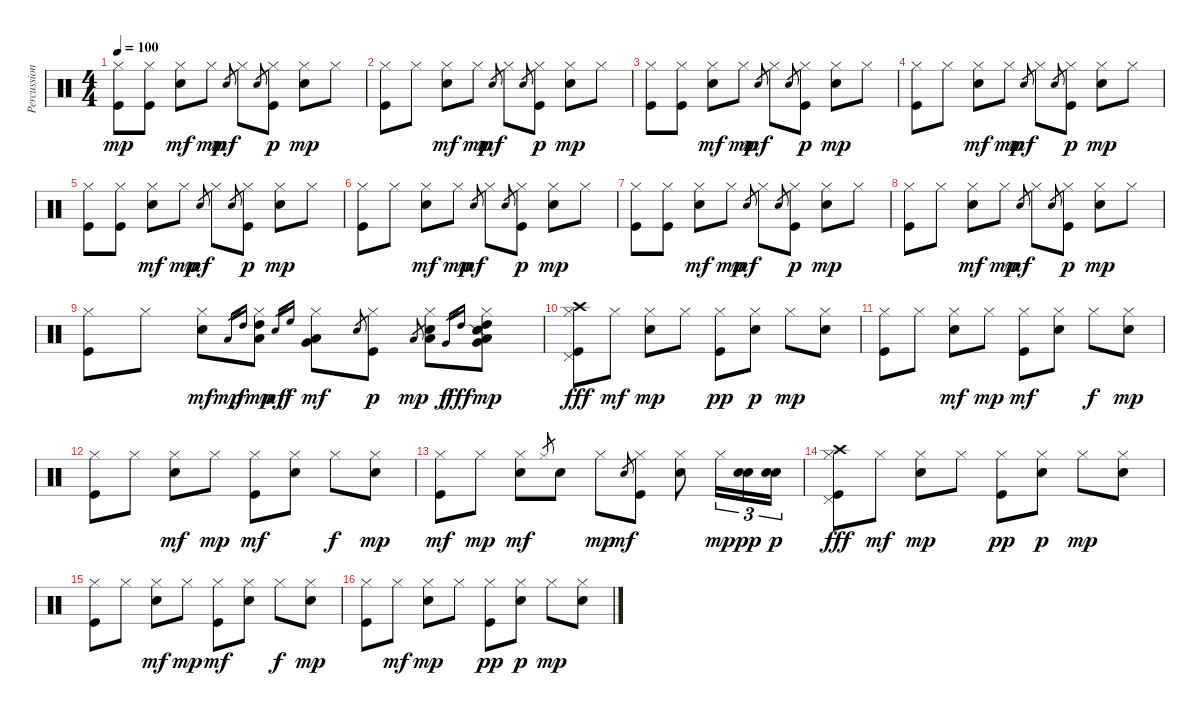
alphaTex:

\track ("Percussions" "Percussion") {instrument percussion}
\staff {score}
\articulation defaults
\ts (4 4)
\tempo 100
\clef neutral
\ks c
("Kick (hit)" "Hi-Hat (closed)").8{dy mp} ("Kick (hit)" "Hi-Hat (closed)").8 ("Snare (hit) 2" "Hi-Hat (closed)").8{dy mf} "Hi-Hat (closed)".8{dy mp} "Snare (hit) 2".8{gr dy mf} "Hi-Hat (closed)".8 "Snare (hit) 2".8{gr} ("Kick (hit)" "Hi-Hat (closed)").8{dy p} ("Snare (hit) 2" "Hi-Hat (closed)").8{dy mp} "Hi-Hat (closed)".8 |
("Kick (hit)" "Hi-Hat (closed)").8 "Hi-Hat (closed)".8 ("Snare (hit) 2" "Hi-Hat (closed)").8{dy mf} "Hi-Hat (closed)".8{dy mp} "Snare (hit) 2".8{gr dy mf} "Hi-Hat (closed)".8 "Snare (hit) 2".8{gr} ("Kick (hit)" "Hi-Hat (closed)").8{dy p} ("Snare (hit) 2" "Hi-Hat (closed)").8{dy mp} "Hi-Hat (closed)".8 |
("Kick (hit)" "Hi-Hat (closed)").8 ("Kick (hit)" "Hi-Hat (closed)").8 ("Snare (hit) 2" "Hi-Hat (closed)").8{dy mf} "Hi-Hat (closed)".8{dy mp} "Snare (hit) 2".8{gr dy mf} "Hi-Hat (closed)".8 "Snare (hit) 2".8{gr} ("Kick (hit)" "Hi-Hat (closed)").8{dy p} ("Snare (hit) 2" "Hi-Hat (closed)").8{dy mp} "Hi-Hat (closed)".8 |
("Kick (hit)" "Hi-Hat (closed)").8 "Hi-Hat (closed)".8 ("Snare (hit) 2" "Hi-Hat (closed)").8{dy mf} "Hi-Hat (closed)".8{dy mp} "Snare (hit) 2".8{gr dy mf} "Hi-Hat (closed)".8 "Snare (hit) 2".8{gr} ("Kick (hit)" "Hi-Hat (closed)").8{dy p} ("Snare (hit) 2" "Hi-Hat (closed)").8{dy mp} "Hi-Hat (closed)".8 |
("Kick (hit)" "Hi-Hat (closed)").8 ("Kick (hit)" "Hi-Hat (closed)").8 ("Snare (hit) 2" "Hi-Hat (closed)").8{dy mf} "Hi-Hat (closed)".8{dy mp} "Snare (hit) 2".8{gr dy mf} "Hi-Hat (closed)".8 "Snare (hit) 2".8{gr} ("Kick (hit)" "Hi-Hat (closed)").8{dy p} ("Snare (hit) 2" "Hi-Hat (closed)").8{dy mp} "Hi-Hat (closed)".8 |
("Kick (hit)" "Hi-Hat (closed)").8 "Hi-Hat (closed)".8 ("Snare (hit) 2" "Hi-Hat (closed)").8{dy mf} "Hi-Hat (closed)".8{dy mp} "Snare (hit) 2".8{gr dy mf} "Hi-Hat (closed)".8 "Snare (hit) 2".8{gr} ("Kick (hit)" "Hi-Hat (closed)").8{dy p} ("Snare (hit) 2" "Hi-Hat (closed)").8{dy mp} "Hi-Hat (closed)".8 |
("Kick (hit)" "Hi-Hat (closed)").8 ("Kick (hit)" "Hi-Hat (closed)").8 ("Snare (hit) 2" "Hi-Hat (closed)").8{dy mf} "Hi-Hat (closed)".8{dy mp} "Snare (hit) 2".8{gr dy mf} "Hi-Hat (closed)".8 "Snare (hit) 2".8{gr} ("Kick (hit)" "Hi-Hat (closed)").8{dy p} ("Snare (hit) 2" "Hi-Hat (closed)").8{dy mp} "Hi-Hat (closed)".8 |
("Kick (hit)" "Hi-Hat (closed)").8 "Hi-Hat (closed)".8 ("Snare (hit) 2" "Hi-Hat (closed)").8{dy mf} "Hi-Hat (closed)".8{dy mp} "Snare (hit) 2".8{gr dy mf} "Hi-Hat (closed)".8 "Snare (hit) 2".8{gr} ("Kick (hit)" "Hi-Hat (closed)").8{dy p} ("Snare (hit) 2" "Hi-Hat (closed)").8{dy mp} "Hi-Hat (closed)".8 |
("Kick (hit)" "Hi-Hat (closed)").8 "Hi-Hat (closed)".8 ("Snare (hit) 2" "Hi-Hat (closed)").8{dy mf} "Low Tom (hit)".16{gr dy mp} "High Tom (hit)".16{gr dy f} ("Hi-Hat (closed)" "Low Tom (hit)" "High Tom (hit)").8{dy mp} "Snare (hit) 2".16{gr dy mf} "High Floor Tom (hit)".16{gr dy f} ("Hi-Hat (closed)" "Very Low Tom (hit)" "Low Tom (hit)").8{dy mf} "Snare (hit) 2".8{gr} ("Kick (hit)" "Hi-Hat (closed)").8{dy p} "Low Tom (hit)".8{gr dy mp} ("Snare (hit) 2" "Hi-Hat (closed)" "Low Tom (hit)").8 "Very Low Tom (hit)".16{gr dy f} "High Tom (hit)".16{gr dy fff} ("Snare (side stick) 2" "Very Low Tom (hit)" "Low Floor Tom (hit)" "Hi-Hat (closed)" "High Tom (hit)").8{dy mp} |
("Kick (hit)" "Hi-Hat (closed)" "Pedal Hi-Hat (hit)" "Crash high (hit)").8{dy fff} "Hi-Hat (closed)".8{dy mf} ("Snare (hit) 2" "Hi-Hat (closed)").8{dy mp} "Hi-Hat (closed)".8 ("Kick (hit)" "Hi-Hat (closed)").8{dy pp} ("Snare (hit) 2" "Hi-Hat (closed)").8{dy p} "Hi-Hat (closed)".8{dy mp} ("Snare (hit) 2" "Hi-Hat (closed)").8 |
("Kick (hit)" "Hi-Hat (closed)").8 "Hi-Hat (closed)".8 ("Snare (hit) 2" "Hi-Hat (closed)").8{dy mf} "Hi-Hat (closed)".8{dy mp} ("Kick (hit)" "Hi-Hat (closed)").8{dy mf} ("Snare (hit) 2" "Hi-Hat (closed)").8 "Hi-Hat (closed)".8{dy f} ("Snare (hit) 2" "Hi-Hat (closed)").8{dy mp} |
("Kick (hit)" "Hi-Hat (closed)").8 "Hi-Hat (closed)".8 ("Snare (hit) 2" "Hi-Hat (closed)").8{dy mf} "Hi-Hat (closed)".8{dy mp} ("Kick (hit)" "Hi-Hat (closed)").8{dy mf} ("Snare (hit) 2" "Hi-Hat (closed)").8 "Hi-Hat (closed)".8{dy f} ("Snare (hit) 2" "Hi-Hat (closed)").8{dy mp} |
("Kick (hit)" "Hi-Hat (closed)").8{dy mf} "Hi-Hat (closed)".8{dy mp} ("Snare (hit) 2" "Hi-Hat (closed)").8{dy mf} "Hi-Hat (closed)".8{gr} "Snare (hit) 2".8 "Hi-Hat (closed)".8{dy mp} "Snare (hit) 2".8{gr dy mf} ("Kick (hit)" "Hi-Hat (closed)").8 ("Snare (hit) 2" "Hi-Hat (closed)").8 "Hi-Hat (closed)".16{tu (3 2) dy mp} ("Snare (hit) 2" "Snare (hit) 2").16{tu (3 2) dy pp} ("Snare (hit) 2" "Snare (hit) 2").16{tu (3 2) dy p} |
("Kick (hit)" "Hi-Hat (closed)" "Pedal Hi-Hat (hit)" "Crash high (hit)").8{dy fff} "Hi-Hat (closed)".8{dy mf} ("Snare (hit) 2" "Hi-Hat (closed)").8{dy mp} "Hi-Hat (closed)".8 ("Kick (hit)" "Hi-Hat (closed)").8{dy pp} ("Snare (hit) 2" "Hi-Hat (closed)").8{dy p} "Hi-Hat (closed)".8{dy mp} ("Snare (hit) 2" "Hi-Hat (closed)").8 |
("Kick (hit)" "Hi-Hat (closed)").8 "Hi-Hat (closed)".8 ("Snare (hit) 2" "Hi-Hat (closed)").8{dy mf} "Hi-Hat (closed)".8{dy mp} ("Kick (hit)" "Hi-Hat (closed)").8{dy mf} ("Snare (hit) 2" "Hi-Hat (closed)").8 "Hi-Hat (closed)".8{dy f} ("Snare (hit) 2" "Hi-Hat (closed)").8{dy mp} |
("Kick (hit)" "Hi-Hat (closed)").8 "Hi-Hat (closed)".8{dy mf} ("Snare (hit) 2" "Hi-Hat (closed)").8{dy mp} "Hi-Hat (closed)".8 ("Kick (hit)" "Hi-Hat (closed)").8{dy pp} ("Snare (hit) 2" "Hi-Hat (closed)").8{dy p} "Hi-Hat (closed)".8{dy mp} ("Snare (hit) 2" "Hi-Hat (closed)").8
